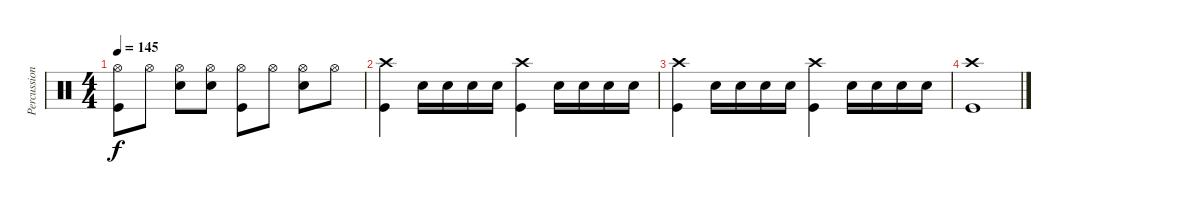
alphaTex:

\track ("Percussion" "Percussion") {instrument percussion}
\staff {score}
\articulation defaults
\ts (4 4)
\tempo 145
\clef neutral
\ks c
("Hi-Hat (open)" "Kick (hit)").8{dy f} "Hi-Hat (open)".8 ("Hi-Hat (open)" "Snare (hit) 2").8 ("Hi-Hat (open)" "Snare (hit) 2").8 ("Hi-Hat (open)" "Kick (hit)").8 "Hi-Hat (open)".8 ("Hi-Hat (open)" "Snare (hit) 2").8 "Hi-Hat (open)".8 |
("Crash high (hit)" "Kick (hit)").4 "Snare (hit) 2".16 "Snare (hit) 2".16 "Snare (hit) 2".16 "Snare (hit) 2".16 ("Crash high (hit)" "Kick (hit)").4 "Snare (hit) 2".16 "Snare (hit) 2".16 "Snare (hit) 2".16 "Snare (hit) 2".16 |
("Crash high (hit)" "Kick (hit)").4 "Snare (hit) 2".16 "Snare (hit) 2".16 "Snare (hit) 2".16 "Snare (hit) 2".16 ("Crash high (hit)" "Kick (hit)").4 "Snare (hit) 2".16 "Snare (hit) 2".16 "Snare (hit) 2".16 "Snare (hit) 2".16 |
("Crash high (hit)" "Kick (hit)").1
